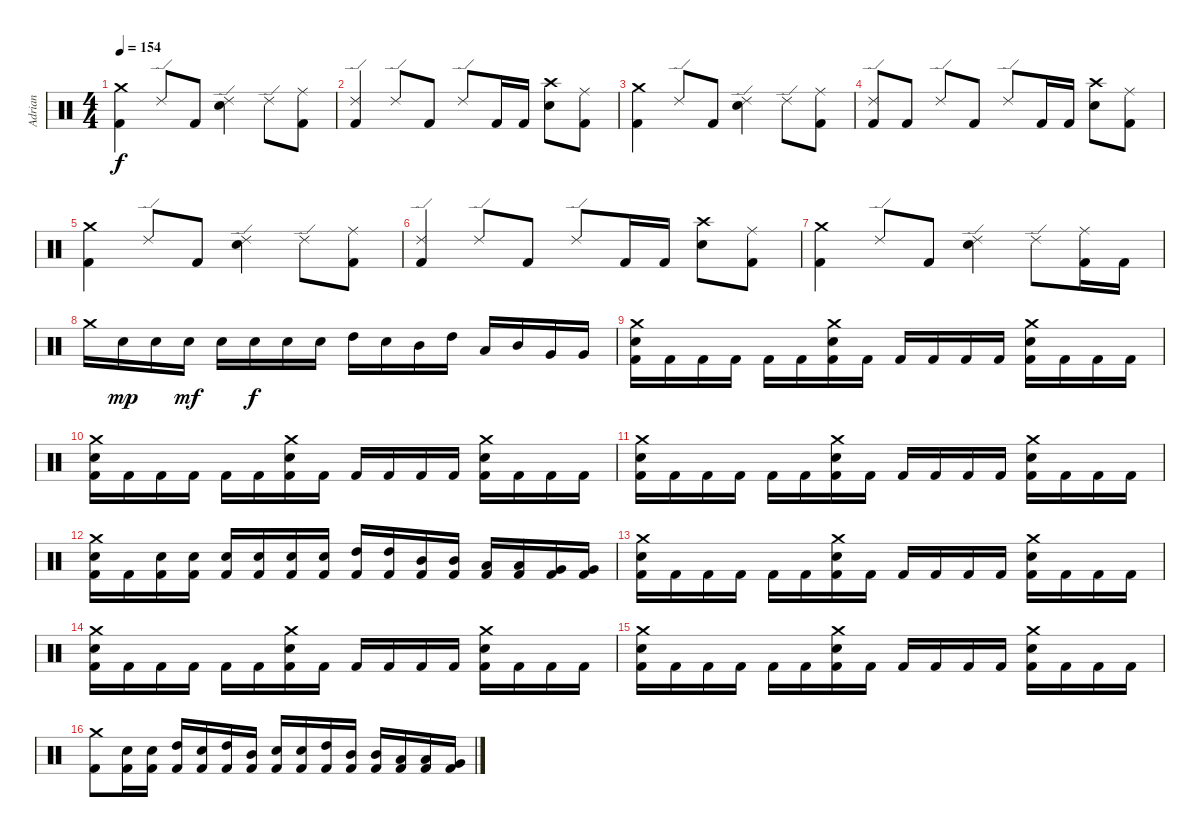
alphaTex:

\track ("Adrian" "Adrian") {instrument percussion}
\staff {score}
\articulation defaults
\ts (4 4)
\tempo 154
\clef neutral
\ks c
("Crash medium (hit)" "Kick (hit) 2").4{dy f} "Ride (edge) 2".8 "Kick (hit) 2".8 ("Ride (edge) 2" "Electric Snare (hit)").4 "Ride (edge) 2".8 ("Ride (middle)" "Kick (hit) 2").8 |
("Ride (edge) 2" "Kick (hit) 2").4 "Ride (edge) 2".8 "Kick (hit) 2".8 "Ride (edge) 2".8 "Kick (hit) 2".16 "Kick (hit) 2".16 ("Crash high (hit)" "Electric Snare (hit)").8 ("Ride (middle)" "Kick (hit) 2").8 |
("Crash medium (hit)" "Kick (hit) 2").4 "Ride (edge) 2".8 "Kick (hit) 2".8 ("Ride (edge) 2" "Electric Snare (hit)").4 "Ride (edge) 2".8 ("Ride (middle)" "Kick (hit) 2").8 |
("Ride (edge) 2" "Kick (hit) 2").8 "Kick (hit) 2".8 "Ride (edge) 2".8 "Kick (hit) 2".8 "Ride (edge) 2".8 "Kick (hit) 2".16 "Kick (hit) 2".16 ("Crash high (hit)" "Electric Snare (hit)").8 ("Ride (middle)" "Kick (hit) 2").8 |
("Crash medium (hit)" "Kick (hit) 2").4 "Ride (edge) 2".8 "Kick (hit) 2".8 ("Ride (edge) 2" "Electric Snare (hit)").4 "Ride (edge) 2".8 ("Ride (middle)" "Kick (hit) 2").8 |
("Ride (edge) 2" "Kick (hit) 2").4 "Ride (edge) 2".8 "Kick (hit) 2".8 "Ride (edge) 2".8 "Kick (hit) 2".16 "Kick (hit) 2".16 ("Crash high (hit)" "Electric Snare (hit)").8 ("Ride (middle)" "Kick (hit) 2").8 |
("Crash medium (hit)" "Kick (hit) 2").4 "Ride (edge) 2".8 "Kick (hit) 2".8 ("Ride (edge) 2" "Electric Snare (hit)").4 "Ride (edge) 2".8 ("Ride (middle)" "Kick (hit) 2").16 "Kick (hit) 2".16 |
"Crash medium (hit)".16 "Electric Snare (hit)".16{dy mp} "Electric Snare (hit)".16 "Electric Snare (hit)".16{dy mf} "Electric Snare (hit)".16 "Electric Snare (hit)".16{dy f} "Electric Snare (hit)".16 "Electric Snare (hit)".16 "High Tom (hit)".16 "Electric Snare (hit)".16 "Mid Tom (hit)".16 "High Tom (hit)".16 "Low Tom (hit)".16 "Mid Tom (hit)".16 "Very Low Tom (hit)".16 "Very Low Tom (hit)".16 |
("Crash medium (hit)" "Electric Snare (hit)" "Kick (hit) 2").16 "Kick (hit) 2".16 "Kick (hit) 2".16 "Kick (hit) 2".16 "Kick (hit) 2".16 "Kick (hit) 2".16 ("Crash medium (hit)" "Electric Snare (hit)" "Kick (hit) 2").16 "Kick (hit) 2".16 "Kick (hit) 2".16 "Kick (hit) 2".16 "Kick (hit) 2".16 "Kick (hit) 2".16 ("Crash medium (hit)" "Electric Snare (hit)" "Kick (hit) 2").16 "Kick (hit) 2".16 "Kick (hit) 2".16 "Kick (hit) 2".16 |
("Crash medium (hit)" "Electric Snare (hit)" "Kick (hit) 2").16 "Kick (hit) 2".16 "Kick (hit) 2".16 "Kick (hit) 2".16 "Kick (hit) 2".16 "Kick (hit) 2".16 ("Crash medium (hit)" "Electric Snare (hit)" "Kick (hit) 2").16 "Kick (hit) 2".16 "Kick (hit) 2".16 "Kick (hit) 2".16 "Kick (hit) 2".16 "Kick (hit) 2".16 ("Crash medium (hit)" "Electric Snare (hit)" "Kick (hit) 2").16 "Kick (hit) 2".16 "Kick (hit) 2".16 "Kick (hit) 2".16 |
("Crash medium (hit)" "Electric Snare (hit)" "Kick (hit) 2").16 "Kick (hit) 2".16 "Kick (hit) 2".16 "Kick (hit) 2".16 "Kick (hit) 2".16 "Kick (hit) 2".16 ("Crash medium (hit)" "Electric Snare (hit)" "Kick (hit) 2").16 "Kick (hit) 2".16 "Kick (hit) 2".16 "Kick (hit) 2".16 "Kick (hit) 2".16 "Kick (hit) 2".16 ("Crash medium (hit)" "Electric Snare (hit)" "Kick (hit) 2").16 "Kick (hit) 2".16 "Kick (hit) 2".16 "Kick (hit) 2".16 |
("Crash medium (hit)" "Electric Snare (hit)" "Kick (hit) 2").16 "Kick (hit) 2".16 ("Electric Snare (hit)" "Kick (hit) 2").16 ("Electric Snare (hit)" "Kick (hit) 2").16 ("Electric Snare (hit)" "Kick (hit) 2").16 ("Electric Snare (hit)" "Kick (hit) 2").16 ("Electric Snare (hit)" "Kick (hit) 2").16 ("Electric Snare (hit)" "Kick (hit) 2").16 ("High Tom (hit)" "Kick (hit) 2").16 ("High Tom (hit)" "Kick (hit) 2").16 ("Mid Tom (hit)" "Kick (hit) 2").16 ("Mid Tom (hit)" "Kick (hit) 2").16 ("Low Tom (hit)" "Kick (hit) 2").16 ("Low Tom (hit)" "Kick (hit) 2").16 ("Very Low Tom (hit)" "Kick (hit) 2").16 ("Very Low Tom (hit)" "Kick (hit) 2").16 |
("Crash medium (hit)" "Electric Snare (hit)" "Kick (hit) 2").16 "Kick (hit) 2".16 "Kick (hit) 2".16 "Kick (hit) 2".16 "Kick (hit) 2".16 "Kick (hit) 2".16 ("Crash medium (hit)" "Electric Snare (hit)" "Kick (hit) 2").16 "Kick (hit) 2".16 "Kick (hit) 2".16 "Kick (hit) 2".16 "Kick (hit) 2".16 "Kick (hit) 2".16 ("Crash medium (hit)" "Electric Snare (hit)" "Kick (hit) 2").16 "Kick (hit) 2".16 "Kick (hit) 2".16 "Kick (hit) 2".16 |
("Crash medium (hit)" "Electric Snare (hit)" "Kick (hit) 2").16 "Kick (hit) 2".16 "Kick (hit) 2".16 "Kick (hit) 2".16 "Kick (hit) 2".16 "Kick (hit) 2".16 ("Crash medium (hit)" "Electric Snare (hit)" "Kick (hit) 2").16 "Kick (hit) 2".16 "Kick (hit) 2".16 "Kick (hit) 2".16 "Kick (hit) 2".16 "Kick (hit) 2".16 ("Crash medium (hit)" "Electric Snare (hit)" "Kick (hit) 2").16 "Kick (hit) 2".16 "Kick (hit) 2".16 "Kick (hit) 2".16 |
("Crash medium (hit)" "Electric Snare (hit)" "Kick (hit) 2").16 "Kick (hit) 2".16 "Kick (hit) 2".16 "Kick (hit) 2".16 "Kick (hit) 2".16 "Kick (hit) 2".16 ("Crash medium (hit)" "Electric Snare (hit)" "Kick (hit) 2").16 "Kick (hit) 2".16 "Kick (hit) 2".16 "Kick (hit) 2".16 "Kick (hit) 2".16 "Kick (hit) 2".16 ("Crash medium (hit)" "Electric Snare (hit)" "Kick (hit) 2").16 "Kick (hit) 2".16 "Kick (hit) 2".16 "Kick (hit) 2".16 |
("Crash medium (hit)" "Kick (hit) 2").8 ("Electric Snare (hit)" "Kick (hit) 2").16 ("Electric Snare (hit)" "Kick (hit) 2").16 ("High Tom (hit)" "Kick (hit) 2").16 ("Electric Snare (hit)" "Kick (hit) 2").16 ("High Tom (hit)" "Kick (hit) 2").16 ("Mid Tom (hit)" "Kick (hit) 2").16 ("Electric Snare (hit)" "Kick (hit) 2").16 ("Electric Snare (hit)" "Kick (hit) 2").16 ("High Tom (hit)" "Kick (hit) 2").16 ("Mid Tom (hit)" "Kick (hit) 2").16 ("Mid Tom (hit)" "Kick (hit) 2").16 ("Low Tom (hit)" "Kick (hit) 2").16 ("Low Tom (hit)" "Kick (hit) 2").16 ("Very Low Tom (hit)" "Kick (hit) 2").16
